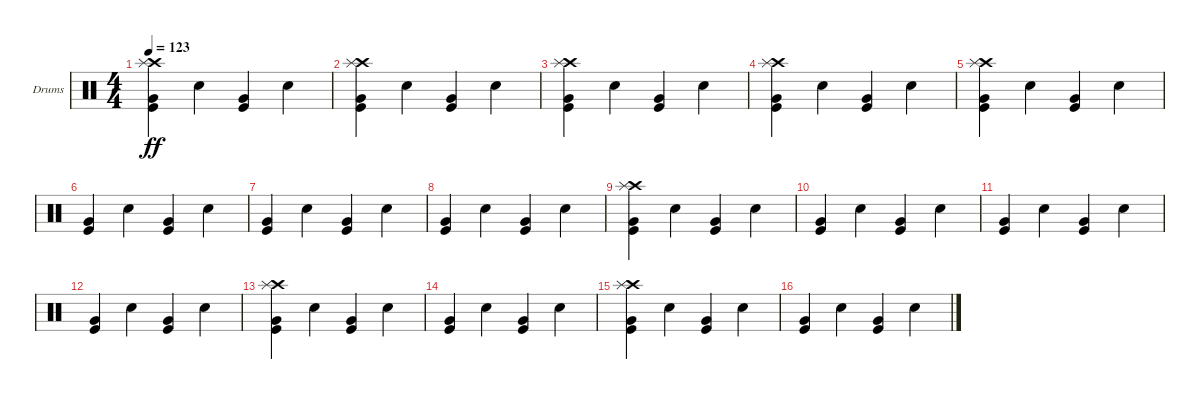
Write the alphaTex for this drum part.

\defaultSystemsLayout 4
\bracketExtendMode groupsimilarinstruments
\firstSystemTrackNameOrientation horizontal
\otherSystemsTrackNameOrientation horizontal
\track ("Drumkit" "Drums") {instrument percussion}
\staff {score}
\articulation defaults
\ts (4 4)
\tempo 123
\clef neutral
\ks c
("Kick (hit)" "Very Low Tom (hit)" "Crash high (hit)" "Splash (hit)").4{dy ff} "Snare (hit) 2".4 ("Kick (hit)" "Very Low Tom (hit)").4 "Snare (hit) 2".4 |
("Kick (hit)" "Very Low Tom (hit)" "Crash high (hit)" "Splash (hit)").4 "Snare (hit) 2".4 ("Kick (hit)" "Very Low Tom (hit)").4 "Snare (hit) 2".4 |
("Kick (hit)" "Very Low Tom (hit)" "Crash high (hit)" "Splash (hit)").4 "Snare (hit) 2".4 ("Kick (hit)" "Very Low Tom (hit)").4 "Snare (hit) 2".4 |
("Kick (hit)" "Very Low Tom (hit)" "Crash high (hit)" "Splash (hit)").4 "Snare (hit) 2".4 ("Kick (hit)" "Very Low Tom (hit)").4 "Snare (hit) 2".4 |
("Kick (hit)" "Very Low Tom (hit)" "Crash high (hit)" "Splash (hit)").4 "Snare (hit) 2".4 ("Kick (hit)" "Very Low Tom (hit)").4 "Snare (hit) 2".4 |
("Kick (hit)" "Very Low Tom (hit)").4 "Snare (hit) 2".4 ("Kick (hit)" "Very Low Tom (hit)").4 "Snare (hit) 2".4 |
("Kick (hit)" "Very Low Tom (hit)").4 "Snare (hit) 2".4 ("Kick (hit)" "Very Low Tom (hit)").4 "Snare (hit) 2".4 |
("Kick (hit)" "Very Low Tom (hit)").4 "Snare (hit) 2".4 ("Kick (hit)" "Very Low Tom (hit)").4 "Snare (hit) 2".4 |
("Kick (hit)" "Very Low Tom (hit)" "Crash high (hit)" "Splash (hit)").4 "Snare (hit) 2".4 ("Kick (hit)" "Very Low Tom (hit)").4 "Snare (hit) 2".4 |
("Kick (hit)" "Very Low Tom (hit)").4 "Snare (hit) 2".4 ("Kick (hit)" "Very Low Tom (hit)").4 "Snare (hit) 2".4 |
("Kick (hit)" "Very Low Tom (hit)").4 "Snare (hit) 2".4 ("Kick (hit)" "Very Low Tom (hit)").4 "Snare (hit) 2".4 |
("Kick (hit)" "Very Low Tom (hit)").4 "Snare (hit) 2".4 ("Kick (hit)" "Very Low Tom (hit)").4 "Snare (hit) 2".4 |
("Kick (hit)" "Very Low Tom (hit)" "Crash high (hit)" "Splash (hit)").4 "Snare (hit) 2".4 ("Kick (hit)" "Very Low Tom (hit)").4 "Snare (hit) 2".4 |
("Kick (hit)" "Very Low Tom (hit)").4 "Snare (hit) 2".4 ("Kick (hit)" "Very Low Tom (hit)").4 "Snare (hit) 2".4 |
("Kick (hit)" "Very Low Tom (hit)" "Crash high (hit)" "Splash (hit)").4 "Snare (hit) 2".4 ("Kick (hit)" "Very Low Tom (hit)").4 "Snare (hit) 2".4 |
("Kick (hit)" "Very Low Tom (hit)").4 "Snare (hit) 2".4 ("Kick (hit)" "Very Low Tom (hit)").4 "Snare (hit) 2".4
